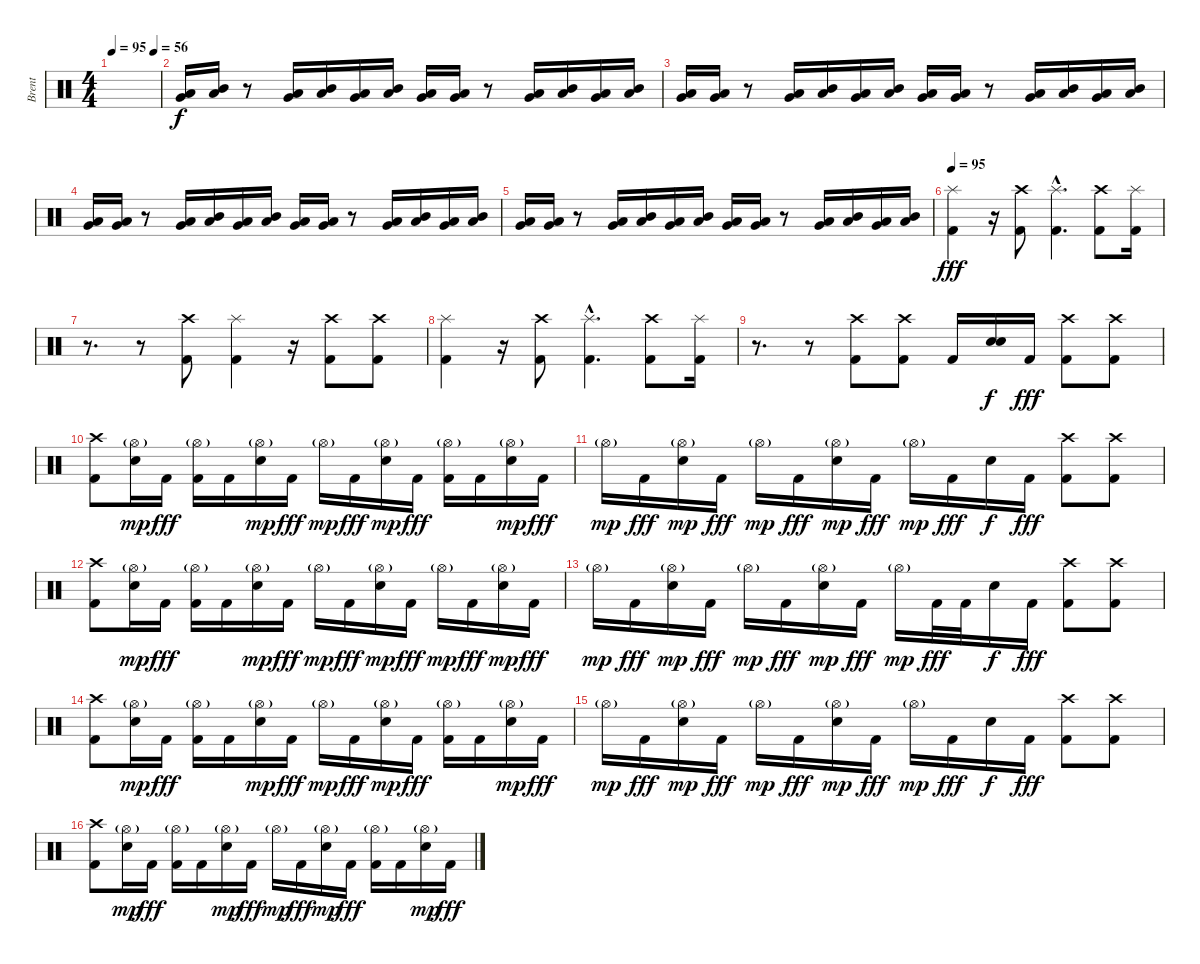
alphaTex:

\track ("Brent" "Brent") {instrument percussion}
\staff {score}
\articulation defaults
\ts (4 4)
\tempo 95
\tempo (56 0.875)
\tempo 95
\clef neutral
\ks c
|
("Low Tom (hit)" "Very Low Tom (hit)").16 ("Mid Tom (hit)" "Low Tom (hit)").16 r.8 ("Low Tom (hit)" "Very Low Tom (hit)").16 ("Mid Tom (hit)" "Low Tom (hit)").16 ("Low Tom (hit)" "Very Low Tom (hit)").16 ("Mid Tom (hit)" "Low Tom (hit)").16 ("Very Low Tom (hit)" "Low Floor Tom (hit)").16 ("Very Low Tom (hit)" "Low Floor Tom (hit)").16 r.8 ("Low Tom (hit)" "Very Low Tom (hit)").16 ("Mid Tom (hit)" "Low Tom (hit)").16 ("Low Tom (hit)" "Very Low Tom (hit)").16 ("Mid Tom (hit)" "Low Tom (hit)").16 |
("Very Low Tom (hit)" "Low Floor Tom (hit)").16 ("Very Low Tom (hit)" "Low Floor Tom (hit)").16 r.8 ("Low Tom (hit)" "Very Low Tom (hit)").16 ("Mid Tom (hit)" "Low Tom (hit)").16 ("Low Tom (hit)" "Very Low Tom (hit)").16 ("Mid Tom (hit)" "Low Tom (hit)").16 ("Very Low Tom (hit)" "Low Floor Tom (hit)").16 ("Very Low Tom (hit)" "Low Floor Tom (hit)").16 r.8 ("Low Tom (hit)" "Very Low Tom (hit)").16 ("Mid Tom (hit)" "Low Tom (hit)").16 ("Low Tom (hit)" "Very Low Tom (hit)").16 ("Mid Tom (hit)" "Low Tom (hit)").16 |
("Very Low Tom (hit)" "Low Floor Tom (hit)").16 ("Very Low Tom (hit)" "Low Floor Tom (hit)").16 r.8 ("Low Tom (hit)" "Very Low Tom (hit)").16 ("Mid Tom (hit)" "Low Tom (hit)").16 ("Low Tom (hit)" "Very Low Tom (hit)").16 ("Mid Tom (hit)" "Low Tom (hit)").16 ("Very Low Tom (hit)" "Low Floor Tom (hit)").16 ("Very Low Tom (hit)" "Low Floor Tom (hit)").16 r.8 ("Low Tom (hit)" "Very Low Tom (hit)").16 ("Mid Tom (hit)" "Low Tom (hit)").16 ("Low Tom (hit)" "Very Low Tom (hit)").16 ("Mid Tom (hit)" "Low Tom (hit)").16 |
("Very Low Tom (hit)" "Low Floor Tom (hit)").16 ("Very Low Tom (hit)" "Low Floor Tom (hit)").16 r.8 ("Low Tom (hit)" "Very Low Tom (hit)").16 ("Mid Tom (hit)" "Low Tom (hit)").16 ("Low Tom (hit)" "Very Low Tom (hit)").16 ("Mid Tom (hit)" "Low Tom (hit)").16 ("Very Low Tom (hit)" "Low Floor Tom (hit)").16 ("Very Low Tom (hit)" "Low Floor Tom (hit)").16 r.8 ("Low Tom (hit)" "Very Low Tom (hit)").16 ("Mid Tom (hit)" "Low Tom (hit)").16 ("Low Tom (hit)" "Very Low Tom (hit)").16 ("Mid Tom (hit)" "Low Tom (hit)").16 |
\tempo 95
("Splash (hit)" "Kick (hit) 2").4{dy fff} r.16 ("Crash high (hit)" "Kick (hit) 2").8 ("Splash (hit)"{hac} "Kick (hit) 2"{hac}).4{d} ("Crash high (hit)" "Kick (hit) 2").8 ("Splash (hit)" "Kick (hit) 2").16 |
r.8{d} r.8 ("Crash high (hit)" "Kick (hit) 2").8 ("Splash (hit)" "Kick (hit) 2").4 r.16 ("Crash high (hit)" "Kick (hit) 2").8 ("Crash high (hit)" "Kick (hit) 2").8 |
("Splash (hit)" "Kick (hit) 2").4 r.16 ("Crash high (hit)" "Kick (hit) 2").8 ("Splash (hit)"{hac} "Kick (hit) 2"{hac}).4{d} ("Crash high (hit)" "Kick (hit) 2").8 ("Splash (hit)" "Kick (hit) 2").16 |
r.8{d} r.8 ("Crash high (hit)" "Kick (hit) 2").8 ("Crash high (hit)" "Kick (hit) 2").8 "Kick (hit) 2".16 ("Snare (hit) 2" "Snare (hit) 2").16{dy f} "Kick (hit) 2".16{dy fff} ("Crash high (hit)" "Kick (hit) 2").8 ("Crash high (hit)" "Kick (hit) 2").8 |
("Crash high (hit)" "Kick (hit) 2").8 ("Hi-Hat (open)"{g} "Snare (hit) 2").16{dy mp} "Kick (hit) 2".16{dy fff} ("Hi-Hat (open)"{g} "Kick (hit) 2").16 "Kick (hit) 2".16 ("Hi-Hat (open)"{g} "Snare (hit) 2").16{dy mp} "Kick (hit) 2".16{dy fff} "Hi-Hat (open)"{g}.16{dy mp} "Kick (hit) 2".16{dy fff} ("Hi-Hat (open)"{g} "Snare (hit) 2").16{dy mp} "Kick (hit) 2".16{dy fff} ("Hi-Hat (open)"{g} "Kick (hit) 2").16 "Kick (hit) 2".16 ("Hi-Hat (open)"{g} "Snare (hit) 2").16{dy mp} "Kick (hit) 2".16{dy fff} |
"Hi-Hat (open)"{g}.16{dy mp} "Kick (hit) 2".16{dy fff} ("Hi-Hat (open)"{g} "Snare (hit) 2").16{dy mp} "Kick (hit) 2".16{dy fff} "Hi-Hat (open)"{g}.16{dy mp} "Kick (hit) 2".16{dy fff} ("Hi-Hat (open)"{g} "Snare (hit) 2").16{dy mp} "Kick (hit) 2".16{dy fff} "Hi-Hat (open)"{g}.16{dy mp} "Kick (hit) 2".16{dy fff} "Snare (hit) 2".16{dy f} "Kick (hit) 2".16{dy fff} ("Crash high (hit)" "Kick (hit) 2").8 ("Crash high (hit)" "Kick (hit) 2").8 |
("Crash high (hit)" "Kick (hit) 2").8 ("Hi-Hat (open)"{g} "Snare (hit) 2").16{dy mp} "Kick (hit) 2".16{dy fff} ("Hi-Hat (open)"{g} "Kick (hit) 2").16 "Kick (hit) 2".16 ("Hi-Hat (open)"{g} "Snare (hit) 2").16{dy mp} "Kick (hit) 2".16{dy fff} "Hi-Hat (open)"{g}.16{dy mp} "Kick (hit) 2".16{dy fff} ("Hi-Hat (open)"{g} "Snare (hit) 2").16{dy mp} "Kick (hit) 2".16{dy fff} "Hi-Hat (open)"{g}.16{dy mp} "Kick (hit) 2".16{dy fff} ("Hi-Hat (open)"{g} "Snare (hit) 2").16{dy mp} "Kick (hit) 2".16{dy fff} |
"Hi-Hat (open)"{g}.16{dy mp} "Kick (hit) 2".16{dy fff} ("Hi-Hat (open)"{g} "Snare (hit) 2").16{dy mp} "Kick (hit) 2".16{dy fff} "Hi-Hat (open)"{g}.16{dy mp} "Kick (hit) 2".16{dy fff} ("Hi-Hat (open)"{g} "Snare (hit) 2").16{dy mp} "Kick (hit) 2".16{dy fff} "Hi-Hat (open)"{g}.16{dy mp} "Kick (hit) 2".32{dy fff} "Kick (hit) 2".32 "Snare (hit) 2".16{dy f} "Kick (hit) 2".16{dy fff} ("Crash high (hit)" "Kick (hit) 2").8 ("Crash high (hit)" "Kick (hit) 2").8 |
("Crash high (hit)" "Kick (hit) 2").8 ("Hi-Hat (open)"{g} "Snare (hit) 2").16{dy mp} "Kick (hit) 2".16{dy fff} ("Hi-Hat (open)"{g} "Kick (hit) 2").16 "Kick (hit) 2".16 ("Hi-Hat (open)"{g} "Snare (hit) 2").16{dy mp} "Kick (hit) 2".16{dy fff} "Hi-Hat (open)"{g}.16{dy mp} "Kick (hit) 2".16{dy fff} ("Hi-Hat (open)"{g} "Snare (hit) 2").16{dy mp} "Kick (hit) 2".16{dy fff} ("Hi-Hat (open)"{g} "Kick (hit) 2").16 "Kick (hit) 2".16 ("Hi-Hat (open)"{g} "Snare (hit) 2").16{dy mp} "Kick (hit) 2".16{dy fff} |
"Hi-Hat (open)"{g}.16{dy mp} "Kick (hit) 2".16{dy fff} ("Hi-Hat (open)"{g} "Snare (hit) 2").16{dy mp} "Kick (hit) 2".16{dy fff} "Hi-Hat (open)"{g}.16{dy mp} "Kick (hit) 2".16{dy fff} ("Hi-Hat (open)"{g} "Snare (hit) 2").16{dy mp} "Kick (hit) 2".16{dy fff} "Hi-Hat (open)"{g}.16{dy mp} "Kick (hit) 2".16{dy fff} "Snare (hit) 2".16{dy f} "Kick (hit) 2".16{dy fff} ("Crash high (hit)" "Kick (hit) 2").8 ("Crash high (hit)" "Kick (hit) 2").8 |
("Crash high (hit)" "Kick (hit) 2").8 ("Hi-Hat (open)"{g} "Snare (hit) 2").16{dy mp} "Kick (hit) 2".16{dy fff} ("Hi-Hat (open)"{g} "Kick (hit) 2").16 "Kick (hit) 2".16 ("Hi-Hat (open)"{g} "Snare (hit) 2").16{dy mp} "Kick (hit) 2".16{dy fff} "Hi-Hat (open)"{g}.16{dy mp} "Kick (hit) 2".16{dy fff} ("Hi-Hat (open)"{g} "Snare (hit) 2").16{dy mp} "Kick (hit) 2".16{dy fff} ("Hi-Hat (open)"{g} "Kick (hit) 2").16 "Kick (hit) 2".16 ("Hi-Hat (open)"{g} "Snare (hit) 2").16{dy mp} "Kick (hit) 2".16{dy fff}
